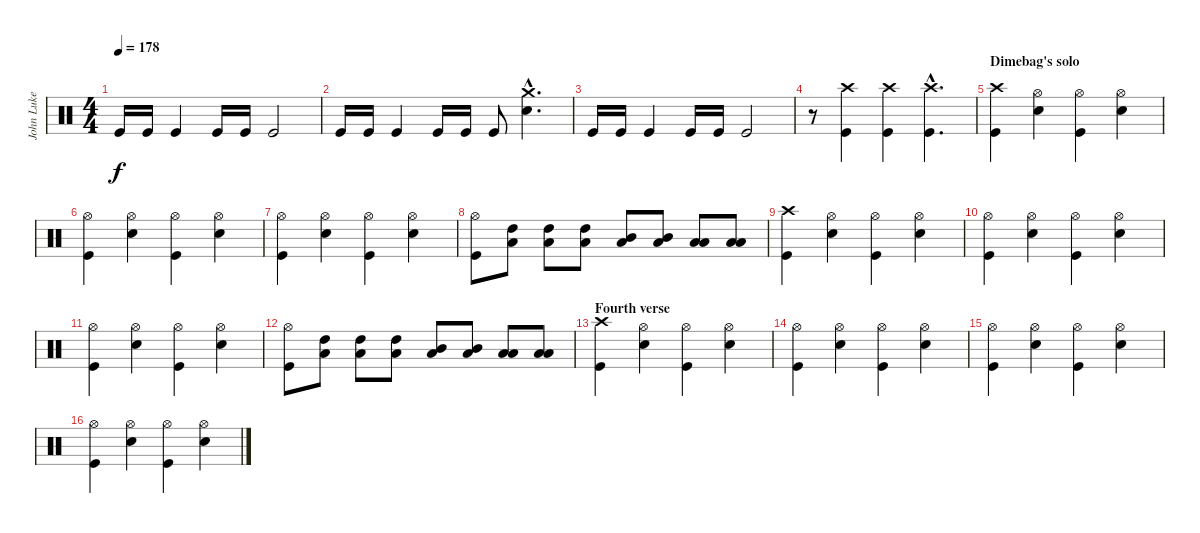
\track ("John Luke (Drums)" "John Luke ") {instrument percussion}
\staff {score}
\articulation defaults
\ts (4 4)
\tempo 178
\clef neutral
\ks c "Kick (hit)".16{dy f} "Kick (hit)".16 "Kick (hit)".4 "Kick (hit)".16 "Kick (hit)".16 "Kick (hit)".2
|
"Kick (hit)".16 "Kick (hit)".16 "Kick (hit)".4 "Kick (hit)".16 "Kick (hit)".16 "Kick (hit)".8 ("Crash medium (hit)"{hac} "Electric Snare (hit)"{hac}).4{d} |
"Kick (hit)".16 "Kick (hit)".16 "Kick (hit)".4 "Kick (hit)".16 "Kick (hit)".16 "Kick (hit)".2 |
r.8 ("Crash high (hit)" "Kick (hit)").4 ("Crash high (hit)" "Kick (hit)").4 ("Crash high (hit)"{hac} "Kick (hit)"{hac}).4{d} |
\section ("" "Dimebag's solo")
("Crash high (hit)" "Kick (hit)").4 ("Hi-Hat (open)" "Electric Snare (hit)").4 ("Hi-Hat (open)" "Kick (hit)").4 ("Hi-Hat (open)" "Electric Snare (hit)").4 |
("Hi-Hat (open)" "Kick (hit)").4 ("Hi-Hat (open)" "Electric Snare (hit)").4 ("Hi-Hat (open)" "Kick (hit)").4 ("Hi-Hat (open)" "Electric Snare (hit)").4 |
("Hi-Hat (open)" "Kick (hit)").4 ("Hi-Hat (open)" "Electric Snare (hit)").4 ("Hi-Hat (open)" "Kick (hit)").4 ("Hi-Hat (open)" "Electric Snare (hit)").4 |
("Hi-Hat (open)" "Kick (hit)").8 ("High Tom (hit)" "Low Floor Tom (hit)").8{bu 120} ("High Tom (hit)" "Low Floor Tom (hit)").8{bu 120} ("High Tom (hit)" "Low Floor Tom (hit)").8{bu 120} ("Mid Tom (hit)" "Low Floor Tom (hit)").8{bu 120} ("Mid Tom (hit)" "Low Floor Tom (hit)").8{bu 120} ("Low Tom (hit)" "Low Floor Tom (hit)").8{bu 120} ("Low Tom (hit)" "Low Floor Tom (hit)").8{bu 120} |
("Crash high (hit)" "Kick (hit)").4 ("Hi-Hat (open)" "Electric Snare (hit)").4 ("Hi-Hat (open)" "Kick (hit)").4 ("Hi-Hat (open)" "Electric Snare (hit)").4 |
("Hi-Hat (open)" "Kick (hit)").4 ("Hi-Hat (open)" "Electric Snare (hit)").4 ("Hi-Hat (open)" "Kick (hit)").4 ("Hi-Hat (open)" "Electric Snare (hit)").4 |
("Hi-Hat (open)" "Kick (hit)").4 ("Hi-Hat (open)" "Electric Snare (hit)").4 ("Hi-Hat (open)" "Kick (hit)").4 ("Hi-Hat (open)" "Electric Snare (hit)").4 |
("Hi-Hat (open)" "Kick (hit)").8 ("High Tom (hit)" "Low Floor Tom (hit)").8{bu 120} ("High Tom (hit)" "Low Floor Tom (hit)").8{bu 120} ("High Tom (hit)" "Low Floor Tom (hit)").8{bu 120} ("Mid Tom (hit)" "Low Floor Tom (hit)").8{bu 120} ("Mid Tom (hit)" "Low Floor Tom (hit)").8{bu 120} ("Low Tom (hit)" "Low Floor Tom (hit)").8{bu 120} ("Low Tom (hit)" "Low Floor Tom (hit)").8{bu 120} |
\section ("" "Fourth verse")
("Crash high (hit)" "Kick (hit)").4 ("Hi-Hat (open)" "Electric Snare (hit)").4 ("Hi-Hat (open)" "Kick (hit)").4 ("Hi-Hat (open)" "Electric Snare (hit)").4 |
("Hi-Hat (open)" "Kick (hit)").4 ("Hi-Hat (open)" "Electric Snare (hit)").4 ("Hi-Hat (open)" "Kick (hit)").4 ("Hi-Hat (open)" "Electric Snare (hit)").4 |
("Hi-Hat (open)" "Kick (hit)").4 ("Hi-Hat (open)" "Electric Snare (hit)").4 ("Hi-Hat (open)" "Kick (hit)").4 ("Hi-Hat (open)" "Electric Snare (hit)").4 |
("Hi-Hat (open)" "Kick (hit)").4 ("Hi-Hat (open)" "Electric Snare (hit)").4 ("Hi-Hat (open)" "Kick (hit)").4 ("Hi-Hat (open)" "Electric Snare (hit)").4
